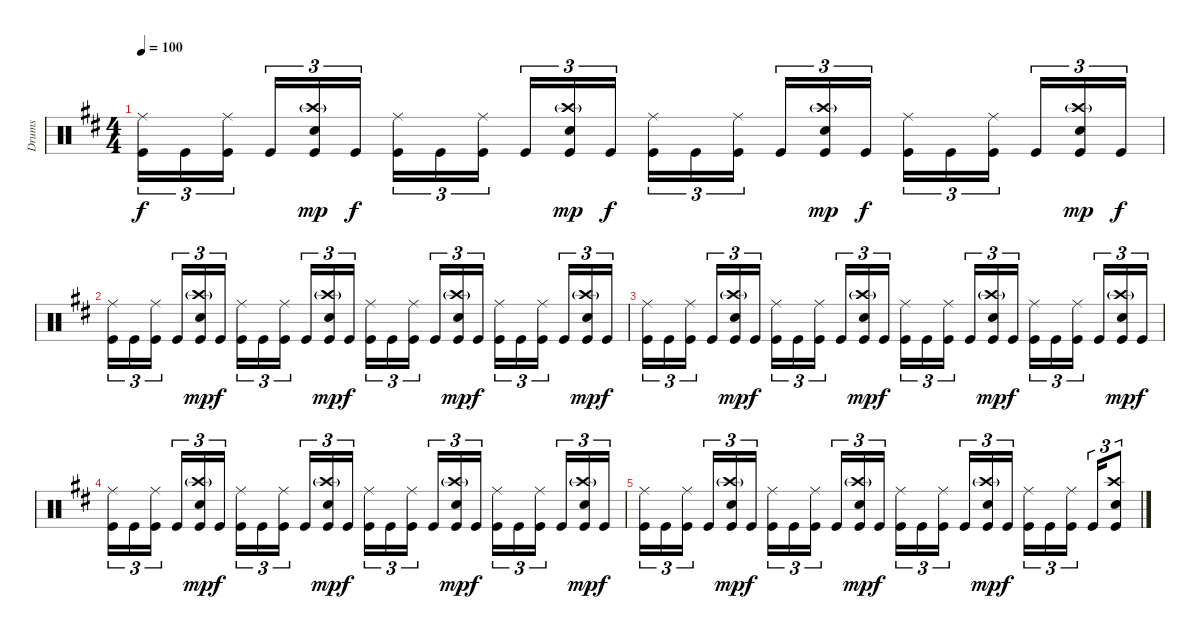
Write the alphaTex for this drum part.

\track ("Drums" "Drums") {instrument percussion}
\staff {score}
\articulation defaults
\ts (4 4)
\tempo 100
\clef neutral
\ks d
("Ride (middle)" "Kick (hit)").16{tu (3 2) dy f} "Kick (hit)".16{tu (3 2)} ("Ride (middle)" "Kick (hit)").16{tu (3 2)} "Kick (hit)".16{tu (3 2)} ("Crash high (hit)"{g} "Snare (hit) 2" "Kick (hit)").16{tu (3 2) dy mp} "Kick (hit)".16{tu (3 2) dy f} ("Ride (middle)" "Kick (hit)").16{tu (3 2)} "Kick (hit)".16{tu (3 2)} ("Ride (middle)" "Kick (hit)").16{tu (3 2)} "Kick (hit)".16{tu (3 2)} ("Crash high (hit)"{g} "Snare (hit) 2" "Kick (hit)").16{tu (3 2) dy mp} "Kick (hit)".16{tu (3 2) dy f} ("Ride (middle)" "Kick (hit)").16{tu (3 2)} "Kick (hit)".16{tu (3 2)} ("Ride (middle)" "Kick (hit)").16{tu (3 2)} "Kick (hit)".16{tu (3 2)} ("Crash high (hit)"{g} "Snare (hit) 2" "Kick (hit)").16{tu (3 2) dy mp} "Kick (hit)".16{tu (3 2) dy f} ("Ride (middle)" "Kick (hit)").16{tu (3 2)} "Kick (hit)".16{tu (3 2)} ("Ride (middle)" "Kick (hit)").16{tu (3 2)} "Kick (hit)".16{tu (3 2)} ("Crash high (hit)"{g} "Snare (hit) 2" "Kick (hit)").16{tu (3 2) dy mp} "Kick (hit)".16{tu (3 2) dy f} |
("Ride (middle)" "Kick (hit)").16{tu (3 2)} "Kick (hit)".16{tu (3 2)} ("Ride (middle)" "Kick (hit)").16{tu (3 2)} "Kick (hit)".16{tu (3 2)} ("Crash high (hit)"{g} "Snare (hit) 2" "Kick (hit)").16{tu (3 2) dy mp} "Kick (hit)".16{tu (3 2) dy f} ("Ride (middle)" "Kick (hit)").16{tu (3 2)} "Kick (hit)".16{tu (3 2)} ("Ride (middle)" "Kick (hit)").16{tu (3 2)} "Kick (hit)".16{tu (3 2)} ("Crash high (hit)"{g} "Snare (hit) 2" "Kick (hit)").16{tu (3 2) dy mp} "Kick (hit)".16{tu (3 2) dy f} ("Ride (middle)" "Kick (hit)").16{tu (3 2)} "Kick (hit)".16{tu (3 2)} ("Ride (middle)" "Kick (hit)").16{tu (3 2)} "Kick (hit)".16{tu (3 2)} ("Crash high (hit)"{g} "Snare (hit) 2" "Kick (hit)").16{tu (3 2) dy mp} "Kick (hit)".16{tu (3 2) dy f} ("Ride (middle)" "Kick (hit)").16{tu (3 2)} "Kick (hit)".16{tu (3 2)} ("Ride (middle)" "Kick (hit)").16{tu (3 2)} "Kick (hit)".16{tu (3 2)} ("Crash high (hit)"{g} "Snare (hit) 2" "Kick (hit)").16{tu (3 2) dy mp} "Kick (hit)".16{tu (3 2) dy f} |
("Ride (middle)" "Kick (hit)").16{tu (3 2)} "Kick (hit)".16{tu (3 2)} ("Ride (middle)" "Kick (hit)").16{tu (3 2)} "Kick (hit)".16{tu (3 2)} ("Crash high (hit)"{g} "Snare (hit) 2" "Kick (hit)").16{tu (3 2) dy mp} "Kick (hit)".16{tu (3 2) dy f} ("Ride (middle)" "Kick (hit)").16{tu (3 2)} "Kick (hit)".16{tu (3 2)} ("Ride (middle)" "Kick (hit)").16{tu (3 2)} "Kick (hit)".16{tu (3 2)} ("Crash high (hit)"{g} "Snare (hit) 2" "Kick (hit)").16{tu (3 2) dy mp} "Kick (hit)".16{tu (3 2) dy f} ("Ride (middle)" "Kick (hit)").16{tu (3 2)} "Kick (hit)".16{tu (3 2)} ("Ride (middle)" "Kick (hit)").16{tu (3 2)} "Kick (hit)".16{tu (3 2)} ("Crash high (hit)"{g} "Snare (hit) 2" "Kick (hit)").16{tu (3 2) dy mp} "Kick (hit)".16{tu (3 2) dy f} ("Ride (middle)" "Kick (hit)").16{tu (3 2)} "Kick (hit)".16{tu (3 2)} ("Ride (middle)" "Kick (hit)").16{tu (3 2)} "Kick (hit)".16{tu (3 2)} ("Crash high (hit)"{g} "Snare (hit) 2" "Kick (hit)").16{tu (3 2) dy mp} "Kick (hit)".16{tu (3 2) dy f} |
("Ride (middle)" "Kick (hit)").16{tu (3 2)} "Kick (hit)".16{tu (3 2)} ("Ride (middle)" "Kick (hit)").16{tu (3 2)} "Kick (hit)".16{tu (3 2)} ("Crash high (hit)"{g} "Snare (hit) 2" "Kick (hit)").16{tu (3 2) dy mp} "Kick (hit)".16{tu (3 2) dy f} ("Ride (middle)" "Kick (hit)").16{tu (3 2)} "Kick (hit)".16{tu (3 2)} ("Ride (middle)" "Kick (hit)").16{tu (3 2)} "Kick (hit)".16{tu (3 2)} ("Crash high (hit)"{g} "Snare (hit) 2" "Kick (hit)").16{tu (3 2) dy mp} "Kick (hit)".16{tu (3 2) dy f} ("Ride (middle)" "Kick (hit)").16{tu (3 2)} "Kick (hit)".16{tu (3 2)} ("Ride (middle)" "Kick (hit)").16{tu (3 2)} "Kick (hit)".16{tu (3 2)} ("Crash high (hit)"{g} "Snare (hit) 2" "Kick (hit)").16{tu (3 2) dy mp} "Kick (hit)".16{tu (3 2) dy f} ("Ride (middle)" "Kick (hit)").16{tu (3 2)} "Kick (hit)".16{tu (3 2)} ("Ride (middle)" "Kick (hit)").16{tu (3 2)} "Kick (hit)".16{tu (3 2)} ("Crash high (hit)"{g} "Snare (hit) 2" "Kick (hit)").16{tu (3 2) dy mp} "Kick (hit)".16{tu (3 2) dy f} |
("Ride (middle)" "Kick (hit)").16{tu (3 2)} "Kick (hit)".16{tu (3 2)} ("Ride (middle)" "Kick (hit)").16{tu (3 2)} "Kick (hit)".16{tu (3 2)} ("Crash high (hit)"{g} "Snare (hit) 2" "Kick (hit)").16{tu (3 2) dy mp} "Kick (hit)".16{tu (3 2) dy f} ("Ride (middle)" "Kick (hit)").16{tu (3 2)} "Kick (hit)".16{tu (3 2)} ("Ride (middle)" "Kick (hit)").16{tu (3 2)} "Kick (hit)".16{tu (3 2)} ("Crash high (hit)"{g} "Snare (hit) 2" "Kick (hit)").16{tu (3 2) dy mp} "Kick (hit)".16{tu (3 2) dy f} ("Ride (middle)" "Kick (hit)").16{tu (3 2)} "Kick (hit)".16{tu (3 2)} ("Ride (middle)" "Kick (hit)").16{tu (3 2)} "Kick (hit)".16{tu (3 2)} ("Crash high (hit)"{g} "Snare (hit) 2" "Kick (hit)").16{tu (3 2) dy mp} "Kick (hit)".16{tu (3 2) dy f} ("Ride (middle)" "Kick (hit)").16{tu (3 2)} "Kick (hit)".16{tu (3 2)} ("Ride (middle)" "Kick (hit)").16{tu (3 2)} "Kick (hit)".16{tu (3 2)} ("Crash high (hit)" "Snare (hit) 2" "Kick (hit)").8{tu (3 2)}
